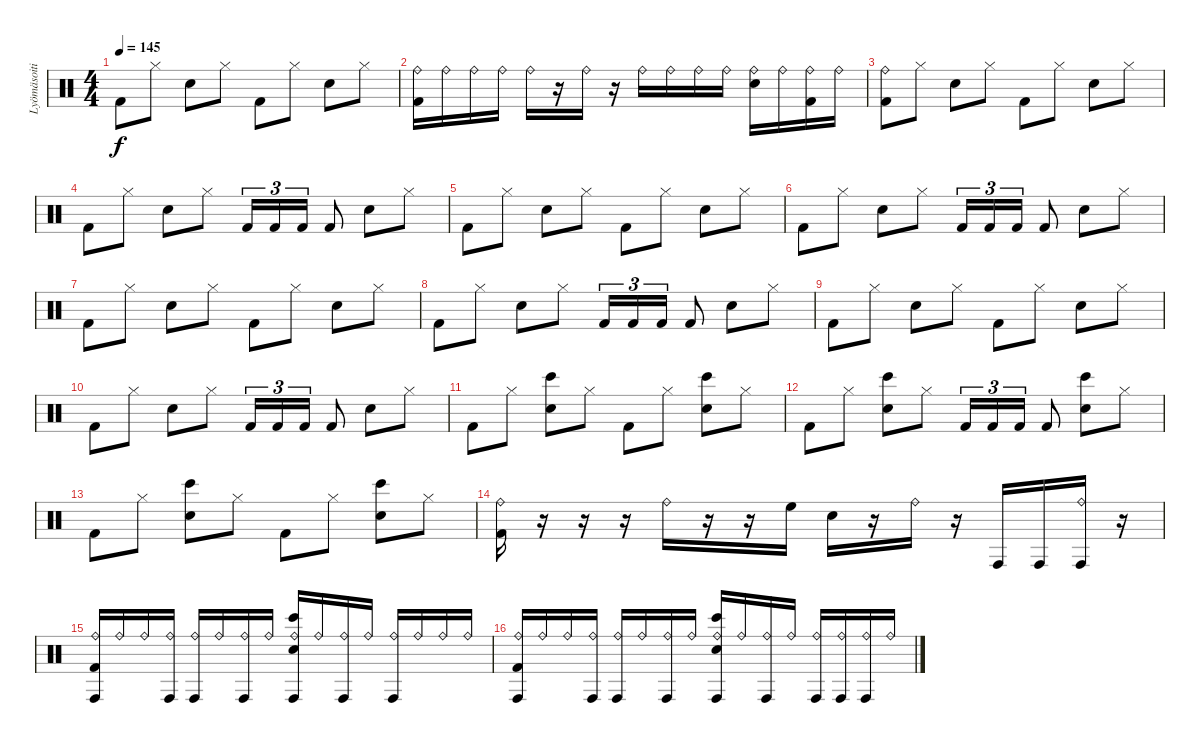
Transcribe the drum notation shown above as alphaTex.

\track ("Lyömäsoitin" "Lyömäsoiti") {instrument percussion}
\staff {score}
\articulation defaults
\ts (4 4)
\tempo 145
\clef neutral
\ks c "Kick (hit) 2".8{dy f} "Hi-Hat (closed)".8 "Electric Snare (hit)".8 "Hi-Hat (closed)".8 "Kick (hit) 2".8 "Hi-Hat (closed)".8 "Electric Snare (hit)".8 "Hi-Hat (closed)".8
|
("Ride (bell)" "Kick (hit) 2").16 "Ride (bell)".16 "Ride (bell)".16 "Ride (bell)".16 "Ride (bell)".16 r.16 "Ride (bell)".16 r.16 "Ride (bell)".16 "Ride (bell)".16 "Ride (bell)".16 "Ride (bell)".16 ("Ride (bell)" "Electric Snare (hit)").16 "Ride (bell)".16 ("Ride (bell)" "Kick (hit) 2").16 "Ride (bell)".16 |
("Ride (bell)" "Kick (hit) 2").8 "Hi-Hat (closed)".8 "Electric Snare (hit)".8 "Hi-Hat (closed)".8 "Kick (hit) 2".8 "Hi-Hat (closed)".8 "Electric Snare (hit)".8 "Hi-Hat (closed)".8 |
"Kick (hit) 2".8 "Hi-Hat (closed)".8 "Electric Snare (hit)".8 "Hi-Hat (closed)".8 "Kick (hit) 2".16{tu (3 2)} "Kick (hit) 2".16{tu (3 2)} "Kick (hit) 2".16{tu (3 2)} "Kick (hit) 2".8 "Electric Snare (hit)".8 "Hi-Hat (closed)".8 |
"Kick (hit) 2".8 "Hi-Hat (closed)".8 "Electric Snare (hit)".8 "Hi-Hat (closed)".8 "Kick (hit) 2".8 "Hi-Hat (closed)".8 "Electric Snare (hit)".8 "Hi-Hat (closed)".8 |
"Kick (hit) 2".8 "Hi-Hat (closed)".8 "Electric Snare (hit)".8 "Hi-Hat (closed)".8 "Kick (hit) 2".16{tu (3 2)} "Kick (hit) 2".16{tu (3 2)} "Kick (hit) 2".16{tu (3 2)} "Kick (hit) 2".8 "Electric Snare (hit)".8 "Hi-Hat (closed)".8 |
"Kick (hit) 2".8 "Hi-Hat (closed)".8 "Electric Snare (hit)".8 "Hi-Hat (closed)".8 "Kick (hit) 2".8 "Hi-Hat (closed)".8 "Electric Snare (hit)".8 "Hi-Hat (closed)".8 |
"Kick (hit) 2".8 "Hi-Hat (closed)".8 "Electric Snare (hit)".8 "Hi-Hat (closed)".8 "Kick (hit) 2".16{tu (3 2)} "Kick (hit) 2".16{tu (3 2)} "Kick (hit) 2".16{tu (3 2)} "Kick (hit) 2".8 "Electric Snare (hit)".8 "Hi-Hat (closed)".8 |
"Kick (hit) 2".8 "Hi-Hat (closed)".8 "Electric Snare (hit)".8 "Hi-Hat (closed)".8 "Kick (hit) 2".8 "Hi-Hat (closed)".8 "Electric Snare (hit)".8 "Hi-Hat (closed)".8 |
"Kick (hit) 2".8 "Hi-Hat (closed)".8 "Electric Snare (hit)".8 "Hi-Hat (closed)".8 "Kick (hit) 2".16{tu (3 2)} "Kick (hit) 2".16{tu (3 2)} "Kick (hit) 2".16{tu (3 2)} "Kick (hit) 2".8 "Electric Snare (hit)".8 "Hi-Hat (closed)".8 |
"Kick (hit) 2".8 "Hi-Hat (closed)".8 ("Bongo High (hit)" "Electric Snare (hit)").8 "Hi-Hat (closed)".8 "Kick (hit) 2".8 "Hi-Hat (closed)".8 ("Bongo High (hit)" "Electric Snare (hit)").8 "Hi-Hat (closed)".8 |
"Kick (hit) 2".8 "Hi-Hat (closed)".8 ("Bongo High (hit)" "Electric Snare (hit)").8 "Hi-Hat (closed)".8 "Kick (hit) 2".16{tu (3 2)} "Kick (hit) 2".16{tu (3 2)} "Kick (hit) 2".16{tu (3 2)} "Kick (hit) 2".8 ("Bongo High (hit)" "Electric Snare (hit)").8 "Hi-Hat (closed)".8 |
"Kick (hit) 2".8 "Hi-Hat (closed)".8 ("Bongo High (hit)" "Electric Snare (hit)").8 "Hi-Hat (closed)".8 "Kick (hit) 2".8 "Hi-Hat (closed)".8 ("Bongo High (hit)" "Electric Snare (hit)").8 "Hi-Hat (closed)".8 |
("Ride (bell)" "Kick (hit) 2").16 r.16 r.16 r.16 "Ride (bell)".16 r.16 r.16 "High Floor Tom (hit)".16 "Electric Snare (hit)".16 r.16 "Ride (bell)".16 r.16 "Conga high (hit)".16 "Conga high (hit)".16 ("Ride (bell)" "Conga high (hit)").16 r.16 |
("Ride (bell)" "Conga high (hit)" "Kick (hit) 2").16 "Ride (bell)".16 "Ride (bell)".16 ("Ride (bell)" "Conga high (hit)").16 ("Ride (bell)" "Conga high (hit)").16 "Ride (bell)".16 ("Ride (bell)" "Conga high (hit)").16 "Ride (bell)".16 ("Ride (bell)" "Conga high (hit)" "Bongo High (hit)" "Electric Snare (hit)").16 "Ride (bell)".16 ("Ride (bell)" "Conga high (hit)").16 "Ride (bell)".16 ("Ride (bell)" "Conga high (hit)").16 "Ride (bell)".16 "Ride (bell)".16 "Ride (bell)".16 |
("Ride (bell)" "Conga high (hit)" "Kick (hit) 2").16 "Ride (bell)".16 "Ride (bell)".16 ("Ride (bell)" "Conga high (hit)").16 ("Ride (bell)" "Conga high (hit)").16 "Ride (bell)".16 ("Ride (bell)" "Conga high (hit)").16 "Ride (bell)".16 ("Ride (bell)" "Conga high (hit)" "Bongo High (hit)" "Electric Snare (hit)").16 "Ride (bell)".16 ("Ride (bell)" "Conga high (hit)").16 "Ride (bell)".16 ("Ride (bell)" "Conga high (hit)").16 ("Ride (bell)" "Conga high (hit)").16 ("Ride (bell)" "Conga high (hit)").16 "Ride (bell)".16
